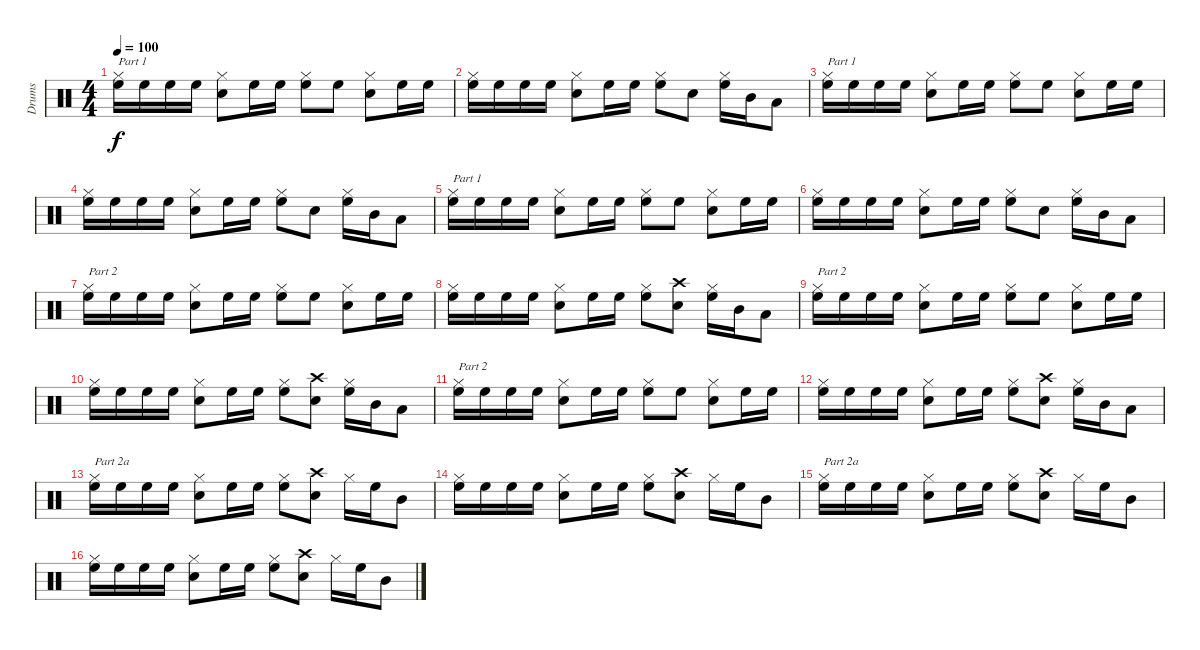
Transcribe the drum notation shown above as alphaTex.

\track ("Drums" "Drums") {instrument percussion}
\staff {score}
\articulation defaults
\ts (4 4)
\tempo 100
\clef neutral
\ks c
("High Floor Tom (hit)" "Hi-Hat (closed)").16{txt "Part 1" dy f} "High Floor Tom (hit)".16 "High Floor Tom (hit)".16 "High Floor Tom (hit)".16 ("Snare (hit) 2" "Hi-Hat (closed)").8 "High Floor Tom (hit)".16 "High Floor Tom (hit)".16 ("High Floor Tom (hit)" "Hi-Hat (closed)").8 "High Floor Tom (hit)".8 ("Snare (hit) 2" "Hi-Hat (closed)").8 "High Floor Tom (hit)".16 "High Floor Tom (hit)".16 |
("High Floor Tom (hit)" "Hi-Hat (closed)").16 "High Floor Tom (hit)".16 "High Floor Tom (hit)".16 "High Floor Tom (hit)".16 ("Snare (hit) 2" "Hi-Hat (closed)").8 "High Floor Tom (hit)".16 "High Floor Tom (hit)".16 ("High Floor Tom (hit)" "Hi-Hat (closed)").8 "Snare (hit) 2".8 ("High Floor Tom (hit)" "Hi-Hat (closed)").16 "Mid Tom (hit)".16 "Low Floor Tom (hit)".8 |
("High Floor Tom (hit)" "Hi-Hat (closed)").16{txt "Part 1"} "High Floor Tom (hit)".16 "High Floor Tom (hit)".16 "High Floor Tom (hit)".16 ("Snare (hit) 2" "Hi-Hat (closed)").8 "High Floor Tom (hit)".16 "High Floor Tom (hit)".16 ("High Floor Tom (hit)" "Hi-Hat (closed)").8 "High Floor Tom (hit)".8 ("Snare (hit) 2" "Hi-Hat (closed)").8 "High Floor Tom (hit)".16 "High Floor Tom (hit)".16 |
("High Floor Tom (hit)" "Hi-Hat (closed)").16 "High Floor Tom (hit)".16 "High Floor Tom (hit)".16 "High Floor Tom (hit)".16 ("Snare (hit) 2" "Hi-Hat (closed)").8 "High Floor Tom (hit)".16 "High Floor Tom (hit)".16 ("High Floor Tom (hit)" "Hi-Hat (closed)").8 "Snare (hit) 2".8 ("High Floor Tom (hit)" "Hi-Hat (closed)").16 "Mid Tom (hit)".16 "Low Floor Tom (hit)".8 |
("High Floor Tom (hit)" "Hi-Hat (closed)").16{txt "Part 1"} "High Floor Tom (hit)".16 "High Floor Tom (hit)".16 "High Floor Tom (hit)".16 ("Snare (hit) 2" "Hi-Hat (closed)").8 "High Floor Tom (hit)".16 "High Floor Tom (hit)".16 ("High Floor Tom (hit)" "Hi-Hat (closed)").8 "High Floor Tom (hit)".8 ("Snare (hit) 2" "Hi-Hat (closed)").8 "High Floor Tom (hit)".16 "High Floor Tom (hit)".16 |
("High Floor Tom (hit)" "Hi-Hat (closed)").16 "High Floor Tom (hit)".16 "High Floor Tom (hit)".16 "High Floor Tom (hit)".16 ("Snare (hit) 2" "Hi-Hat (closed)").8 "High Floor Tom (hit)".16 "High Floor Tom (hit)".16 ("High Floor Tom (hit)" "Hi-Hat (closed)").8 "Snare (hit) 2".8 ("High Floor Tom (hit)" "Hi-Hat (closed)").16 "Mid Tom (hit)".16 "Low Floor Tom (hit)".8 |
("High Floor Tom (hit)" "Hi-Hat (closed)").16{txt "Part 2"} "High Floor Tom (hit)".16 "High Floor Tom (hit)".16 "High Floor Tom (hit)".16 ("Snare (hit) 2" "Hi-Hat (closed)").8 "High Floor Tom (hit)".16 "High Floor Tom (hit)".16 ("High Floor Tom (hit)" "Hi-Hat (closed)").8 "High Floor Tom (hit)".8 ("Snare (hit) 2" "Hi-Hat (closed)").8 "High Floor Tom (hit)".16 "High Floor Tom (hit)".16 |
("High Floor Tom (hit)" "Hi-Hat (closed)").16 "High Floor Tom (hit)".16 "High Floor Tom (hit)".16 "High Floor Tom (hit)".16 ("Snare (hit) 2" "Hi-Hat (closed)").8 "High Floor Tom (hit)".16 "High Floor Tom (hit)".16 ("High Floor Tom (hit)" "Hi-Hat (closed)").8 ("Crash high (hit)" "Snare (hit) 2").8 ("High Floor Tom (hit)" "Hi-Hat (closed)").16 "Mid Tom (hit)".16 "Low Floor Tom (hit)".8 |
("High Floor Tom (hit)" "Hi-Hat (closed)").16{txt "Part 2"} "High Floor Tom (hit)".16 "High Floor Tom (hit)".16 "High Floor Tom (hit)".16 ("Snare (hit) 2" "Hi-Hat (closed)").8 "High Floor Tom (hit)".16 "High Floor Tom (hit)".16 ("High Floor Tom (hit)" "Hi-Hat (closed)").8 "High Floor Tom (hit)".8 ("Snare (hit) 2" "Hi-Hat (closed)").8 "High Floor Tom (hit)".16 "High Floor Tom (hit)".16 |
("High Floor Tom (hit)" "Hi-Hat (closed)").16 "High Floor Tom (hit)".16 "High Floor Tom (hit)".16 "High Floor Tom (hit)".16 ("Snare (hit) 2" "Hi-Hat (closed)").8 "High Floor Tom (hit)".16 "High Floor Tom (hit)".16 ("High Floor Tom (hit)" "Hi-Hat (closed)").8 ("Crash high (hit)" "Snare (hit) 2").8 ("High Floor Tom (hit)" "Hi-Hat (closed)").16 "Mid Tom (hit)".16 "Low Floor Tom (hit)".8 |
("High Floor Tom (hit)" "Hi-Hat (closed)").16{txt "Part 2"} "High Floor Tom (hit)".16 "High Floor Tom (hit)".16 "High Floor Tom (hit)".16 ("Snare (hit) 2" "Hi-Hat (closed)").8 "High Floor Tom (hit)".16 "High Floor Tom (hit)".16 ("High Floor Tom (hit)" "Hi-Hat (closed)").8 "High Floor Tom (hit)".8 ("Snare (hit) 2" "Hi-Hat (closed)").8 "High Floor Tom (hit)".16 "High Floor Tom (hit)".16 |
("High Floor Tom (hit)" "Hi-Hat (closed)").16 "High Floor Tom (hit)".16 "High Floor Tom (hit)".16 "High Floor Tom (hit)".16 ("Snare (hit) 2" "Hi-Hat (closed)").8 "High Floor Tom (hit)".16 "High Floor Tom (hit)".16 ("High Floor Tom (hit)" "Hi-Hat (closed)").8 ("Crash high (hit)" "Snare (hit) 2").8 ("High Floor Tom (hit)" "Hi-Hat (closed)").16 "Mid Tom (hit)".16 "Low Floor Tom (hit)".8 |
("High Floor Tom (hit)" "Hi-Hat (closed)").16{txt "Part 2a"} "High Floor Tom (hit)".16 "High Floor Tom (hit)".16 "High Floor Tom (hit)".16 ("Snare (hit) 2" "Hi-Hat (closed)").8 "High Floor Tom (hit)".16 "High Floor Tom (hit)".16 ("High Floor Tom (hit)" "Hi-Hat (closed)").8 ("Crash high (hit)" "Snare (hit) 2").8 "Hi-Hat (closed)".16 "High Floor Tom (hit)".16 "Mid Tom (hit)".8 |
("High Floor Tom (hit)" "Hi-Hat (closed)").16 "High Floor Tom (hit)".16 "High Floor Tom (hit)".16 "High Floor Tom (hit)".16 ("Snare (hit) 2" "Hi-Hat (closed)").8 "High Floor Tom (hit)".16 "High Floor Tom (hit)".16 ("High Floor Tom (hit)" "Hi-Hat (closed)").8 ("Crash high (hit)" "Snare (hit) 2").8 "Hi-Hat (closed)".16 "High Floor Tom (hit)".16 "Mid Tom (hit)".8 |
("High Floor Tom (hit)" "Hi-Hat (closed)").16{txt "Part 2a"} "High Floor Tom (hit)".16 "High Floor Tom (hit)".16 "High Floor Tom (hit)".16 ("Snare (hit) 2" "Hi-Hat (closed)").8 "High Floor Tom (hit)".16 "High Floor Tom (hit)".16 ("High Floor Tom (hit)" "Hi-Hat (closed)").8 ("Crash high (hit)" "Snare (hit) 2").8 "Hi-Hat (closed)".16 "High Floor Tom (hit)".16 "Mid Tom (hit)".8 |
("High Floor Tom (hit)" "Hi-Hat (closed)").16 "High Floor Tom (hit)".16 "High Floor Tom (hit)".16 "High Floor Tom (hit)".16 ("Snare (hit) 2" "Hi-Hat (closed)").8 "High Floor Tom (hit)".16 "High Floor Tom (hit)".16 ("High Floor Tom (hit)" "Hi-Hat (closed)").8 ("Crash high (hit)" "Snare (hit) 2").8 "Hi-Hat (closed)".16 "High Floor Tom (hit)".16 "Mid Tom (hit)".8
